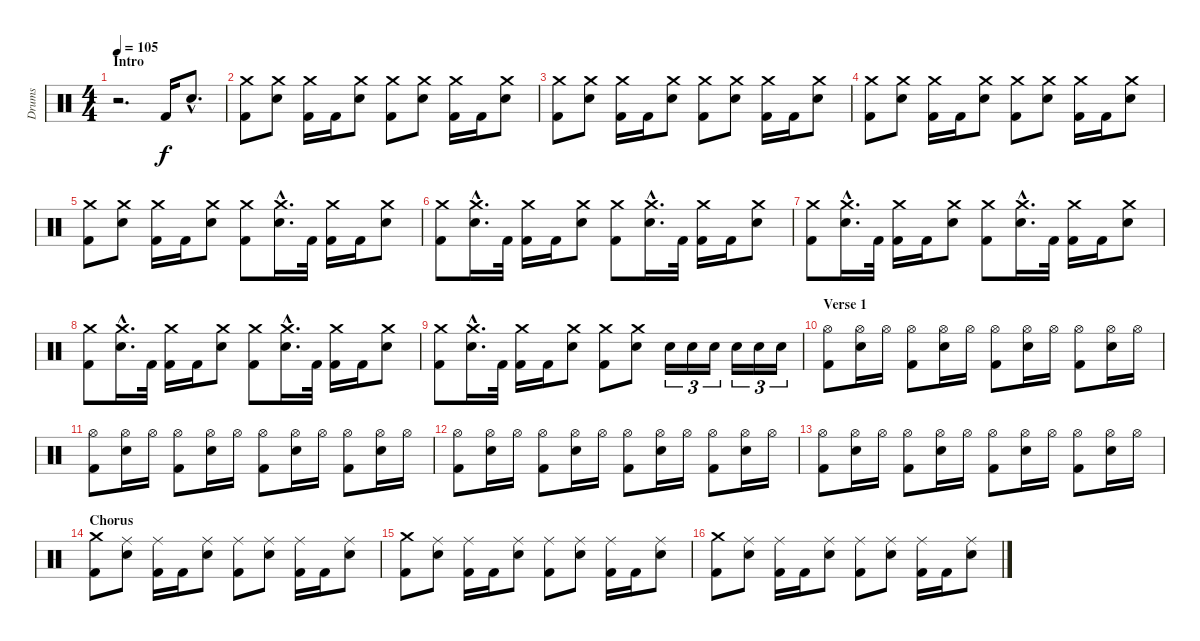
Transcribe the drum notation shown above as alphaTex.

\track ("Drums" "Drums") {instrument percussion}
\staff {score}
\articulation defaults
\ts (4 4)
\section ("" "Intro")
\tempo 105
\clef neutral
\ks c
r.2{d dy f} "Kick (hit) 2".16 "Electric Snare (hit)"{hac}.8{d} |
("Crash medium (hit)" "Kick (hit) 2").8 ("Crash medium (hit)" "Electric Snare (hit)").8 ("Crash medium (hit)" "Kick (hit) 2").16 "Kick (hit) 2".16 ("Crash medium (hit)" "Electric Snare (hit)").8 ("Crash medium (hit)" "Kick (hit) 2").8 ("Crash medium (hit)" "Electric Snare (hit)").8 ("Crash medium (hit)" "Kick (hit) 2").16 "Kick (hit) 2".16 ("Crash medium (hit)" "Electric Snare (hit)").8 |
("Crash medium (hit)" "Kick (hit) 2").8 ("Crash medium (hit)" "Electric Snare (hit)").8 ("Crash medium (hit)" "Kick (hit) 2").16 "Kick (hit) 2".16 ("Crash medium (hit)" "Electric Snare (hit)").8 ("Crash medium (hit)" "Kick (hit) 2").8 ("Crash medium (hit)" "Electric Snare (hit)").8 ("Crash medium (hit)" "Kick (hit) 2").16 "Kick (hit) 2".16 ("Crash medium (hit)" "Electric Snare (hit)").8 |
("Crash medium (hit)" "Kick (hit) 2").8 ("Crash medium (hit)" "Electric Snare (hit)").8 ("Crash medium (hit)" "Kick (hit) 2").16 "Kick (hit) 2".16 ("Crash medium (hit)" "Electric Snare (hit)").8 ("Crash medium (hit)" "Kick (hit) 2").8 ("Crash medium (hit)" "Electric Snare (hit)").8 ("Crash medium (hit)" "Kick (hit) 2").16 "Kick (hit) 2".16 ("Crash medium (hit)" "Electric Snare (hit)").8 |
("Crash medium (hit)" "Kick (hit) 2").8 ("Crash medium (hit)" "Electric Snare (hit)").8 ("Crash medium (hit)" "Kick (hit) 2").16 "Kick (hit) 2".16 ("Crash medium (hit)" "Electric Snare (hit)").8 ("Crash medium (hit)" "Kick (hit) 2").8 ("Crash medium (hit)"{hac} "Electric Snare (hit)"{hac}).16{d} "Kick (hit) 2".32 ("Crash medium (hit)" "Kick (hit) 2").16 "Kick (hit) 2".16 ("Crash medium (hit)" "Electric Snare (hit)").8 |
("Crash medium (hit)" "Kick (hit) 2").8 ("Crash medium (hit)"{hac} "Electric Snare (hit)"{hac}).16{d} "Kick (hit) 2".32 ("Crash medium (hit)" "Kick (hit) 2").16 "Kick (hit) 2".16 ("Crash medium (hit)" "Electric Snare (hit)").8 ("Crash medium (hit)" "Kick (hit) 2").8 ("Crash medium (hit)"{hac} "Electric Snare (hit)"{hac}).16{d} "Kick (hit) 2".32 ("Crash medium (hit)" "Kick (hit) 2").16 "Kick (hit) 2".16 ("Crash medium (hit)" "Electric Snare (hit)").8 |
("Crash medium (hit)" "Kick (hit) 2").8 ("Crash medium (hit)"{hac} "Electric Snare (hit)"{hac}).16{d} "Kick (hit) 2".32 ("Crash medium (hit)" "Kick (hit) 2").16 "Kick (hit) 2".16 ("Crash medium (hit)" "Electric Snare (hit)").8 ("Crash medium (hit)" "Kick (hit) 2").8 ("Crash medium (hit)"{hac} "Electric Snare (hit)"{hac}).16{d} "Kick (hit) 2".32 ("Crash medium (hit)" "Kick (hit) 2").16 "Kick (hit) 2".16 ("Crash medium (hit)" "Electric Snare (hit)").8 |
("Crash medium (hit)" "Kick (hit) 2").8 ("Crash medium (hit)"{hac} "Electric Snare (hit)"{hac}).16{d} "Kick (hit) 2".32 ("Crash medium (hit)" "Kick (hit) 2").16 "Kick (hit) 2".16 ("Crash medium (hit)" "Electric Snare (hit)").8 ("Crash medium (hit)" "Kick (hit) 2").8 ("Crash medium (hit)"{hac} "Electric Snare (hit)"{hac}).16{d} "Kick (hit) 2".32 ("Crash medium (hit)" "Kick (hit) 2").16 "Kick (hit) 2".16 ("Crash medium (hit)" "Electric Snare (hit)").8 |
("Crash medium (hit)" "Kick (hit) 2").8 ("Crash medium (hit)"{hac} "Electric Snare (hit)"{hac}).16{d} "Kick (hit) 2".32 ("Crash medium (hit)" "Kick (hit) 2").16 "Kick (hit) 2".16 ("Crash medium (hit)" "Electric Snare (hit)").8 ("Crash medium (hit)" "Kick (hit) 2").8 ("Crash medium (hit)" "Electric Snare (hit)").8 "Electric Snare (hit)".16{tu (3 2)} "Electric Snare (hit)".16{tu (3 2)} "Electric Snare (hit)".16{tu (3 2)} "Electric Snare (hit)".16{tu (3 2)} "Electric Snare (hit)".16{tu (3 2)} "Electric Snare (hit)".16{tu (3 2)} |
\section ("" "Verse 1")
("Hi-Hat (open)" "Kick (hit) 2").8 ("Hi-Hat (open)" "Electric Snare (hit)").16 "Hi-Hat (open)".16 ("Hi-Hat (open)" "Kick (hit) 2").8 ("Hi-Hat (open)" "Electric Snare (hit)").16 "Hi-Hat (open)".16 ("Hi-Hat (open)" "Kick (hit) 2").8 ("Hi-Hat (open)" "Electric Snare (hit)").16 "Hi-Hat (open)".16 ("Hi-Hat (open)" "Kick (hit) 2").8 ("Hi-Hat (open)" "Electric Snare (hit)").16 "Hi-Hat (open)".16 |
("Hi-Hat (open)" "Kick (hit) 2").8 ("Hi-Hat (open)" "Electric Snare (hit)").16 "Hi-Hat (open)".16 ("Hi-Hat (open)" "Kick (hit) 2").8 ("Hi-Hat (open)" "Electric Snare (hit)").16 "Hi-Hat (open)".16 ("Hi-Hat (open)" "Kick (hit) 2").8 ("Hi-Hat (open)" "Electric Snare (hit)").16 "Hi-Hat (open)".16 ("Hi-Hat (open)" "Kick (hit) 2").8 ("Hi-Hat (open)" "Electric Snare (hit)").16 "Hi-Hat (open)".16 |
("Hi-Hat (open)" "Kick (hit) 2").8 ("Hi-Hat (open)" "Electric Snare (hit)").16 "Hi-Hat (open)".16 ("Hi-Hat (open)" "Kick (hit) 2").8 ("Hi-Hat (open)" "Electric Snare (hit)").16 "Hi-Hat (open)".16 ("Hi-Hat (open)" "Kick (hit) 2").8 ("Hi-Hat (open)" "Electric Snare (hit)").16 "Hi-Hat (open)".16 ("Hi-Hat (open)" "Kick (hit) 2").8 ("Hi-Hat (open)" "Electric Snare (hit)").16 "Hi-Hat (open)".16 |
("Hi-Hat (open)" "Kick (hit) 2").8 ("Hi-Hat (open)" "Electric Snare (hit)").16 "Hi-Hat (open)".16 ("Hi-Hat (open)" "Kick (hit) 2").8 ("Hi-Hat (open)" "Electric Snare (hit)").16 "Hi-Hat (open)".16 ("Hi-Hat (open)" "Kick (hit) 2").8 ("Hi-Hat (open)" "Electric Snare (hit)").16 "Hi-Hat (open)".16 ("Hi-Hat (open)" "Kick (hit) 2").8 ("Hi-Hat (open)" "Electric Snare (hit)").16 "Hi-Hat (open)".16 |
\section ("" "Chorus")
("Crash medium (hit)" "Kick (hit) 2").8 ("Ride (middle)" "Electric Snare (hit)").8 ("Ride (middle)" "Kick (hit) 2").16 "Kick (hit) 2".16 ("Ride (middle)" "Electric Snare (hit)").8 ("Ride (middle)" "Kick (hit) 2").8 ("Ride (middle)" "Electric Snare (hit)").8 ("Ride (middle)" "Kick (hit) 2").16 "Kick (hit) 2".16 ("Ride (middle)" "Electric Snare (hit)").8 |
("Crash medium (hit)" "Kick (hit) 2").8 ("Ride (middle)" "Electric Snare (hit)").8 ("Ride (middle)" "Kick (hit) 2").16 "Kick (hit) 2".16 ("Ride (middle)" "Electric Snare (hit)").8 ("Ride (middle)" "Kick (hit) 2").8 ("Ride (middle)" "Electric Snare (hit)").8 ("Ride (middle)" "Kick (hit) 2").16 "Kick (hit) 2".16 ("Ride (middle)" "Electric Snare (hit)").8 |
("Crash medium (hit)" "Kick (hit) 2").8 ("Ride (middle)" "Electric Snare (hit)").8 ("Ride (middle)" "Kick (hit) 2").16 "Kick (hit) 2".16 ("Ride (middle)" "Electric Snare (hit)").8 ("Ride (middle)" "Kick (hit) 2").8 ("Ride (middle)" "Electric Snare (hit)").8 ("Ride (middle)" "Kick (hit) 2").16 "Kick (hit) 2".16 ("Ride (middle)" "Electric Snare (hit)").8
